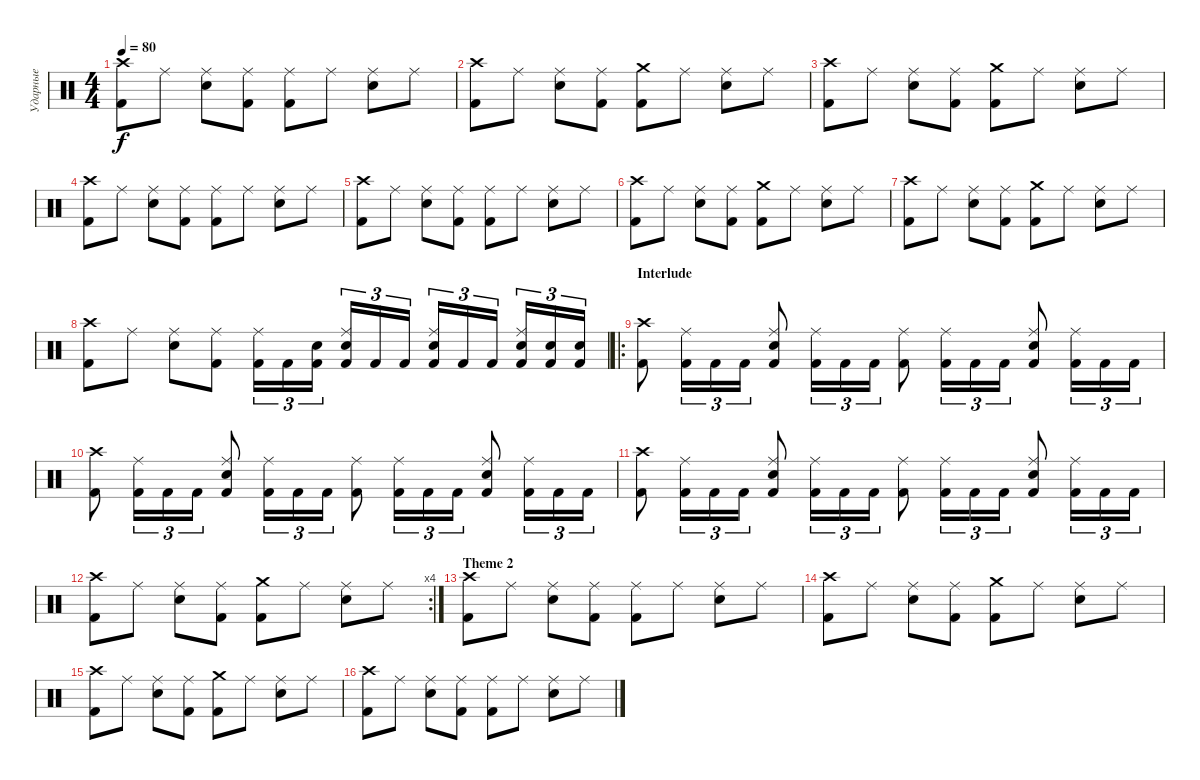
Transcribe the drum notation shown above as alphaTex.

\track ("Ударные" "Ударные") {instrument percussion}
\staff {score}
\articulation defaults
\ts (4 4)
\tempo 80
\clef neutral
\ks c
("Crash high (hit)" "Kick (hit) 2").8{dy f} "Ride (middle)".8 ("Ride (middle)" "Electric Snare (hit)").8 ("Ride (middle)" "Kick (hit) 2").8 ("Ride (middle)" "Kick (hit) 2").8 "Ride (middle)".8 ("Ride (middle)" "Electric Snare (hit)").8 "Ride (middle)".8 |
("Crash high (hit)" "Kick (hit) 2").8 "Ride (middle)".8 ("Ride (middle)" "Electric Snare (hit)").8 ("Ride (middle)" "Kick (hit) 2").8 ("Crash medium (hit)" "Kick (hit) 2").8 "Ride (middle)".8 ("Ride (middle)" "Electric Snare (hit)").8 "Ride (middle)".8 |
("Crash high (hit)" "Kick (hit) 2").8 "Ride (middle)".8 ("Ride (middle)" "Electric Snare (hit)").8 ("Ride (middle)" "Kick (hit) 2").8 ("Crash medium (hit)" "Kick (hit) 2").8 "Ride (middle)".8 ("Ride (middle)" "Electric Snare (hit)").8 "Ride (middle)".8 |
("Crash high (hit)" "Kick (hit) 2").8 "Ride (middle)".8 ("Ride (middle)" "Electric Snare (hit)").8 ("Ride (middle)" "Kick (hit) 2").8 ("Ride (middle)" "Kick (hit) 2").8 "Ride (middle)".8 ("Ride (middle)" "Electric Snare (hit)").8 "Ride (middle)".8 |
("Crash high (hit)" "Kick (hit) 2").8 "Ride (middle)".8 ("Ride (middle)" "Electric Snare (hit)").8 ("Ride (middle)" "Kick (hit) 2").8 ("Ride (middle)" "Kick (hit) 2").8 "Ride (middle)".8 ("Ride (middle)" "Electric Snare (hit)").8 "Ride (middle)".8 |
("Crash high (hit)" "Kick (hit) 2").8 "Ride (middle)".8 ("Ride (middle)" "Electric Snare (hit)").8 ("Ride (middle)" "Kick (hit) 2").8 ("Crash medium (hit)" "Kick (hit) 2").8 "Ride (middle)".8 ("Ride (middle)" "Electric Snare (hit)").8 "Ride (middle)".8 |
("Crash high (hit)" "Kick (hit) 2").8 "Ride (middle)".8 ("Ride (middle)" "Electric Snare (hit)").8 ("Ride (middle)" "Kick (hit) 2").8 ("Crash medium (hit)" "Kick (hit) 2").8 "Ride (middle)".8 ("Ride (middle)" "Electric Snare (hit)").8 "Ride (middle)".8 |
("Crash high (hit)" "Kick (hit) 2").8 "Ride (middle)".8 ("Ride (middle)" "Electric Snare (hit)").8 ("Ride (middle)" "Kick (hit) 2").8 ("Ride (middle)" "Kick (hit) 2").16{tu (3 2)} "Kick (hit) 2".16{tu (3 2)} ("Electric Snare (hit)" "Kick (hit) 2").16{tu (3 2)} ("Ride (middle)" "Electric Snare (hit)" "Kick (hit) 2").16{tu (3 2)} "Kick (hit) 2".16{tu (3 2)} "Kick (hit) 2".16{tu (3 2)} ("Ride (middle)" "Electric Snare (hit)" "Kick (hit) 2").16{tu (3 2)} "Kick (hit) 2".16{tu (3 2)} "Kick (hit) 2".16{tu (3 2)} ("Ride (middle)" "Electric Snare (hit)" "Kick (hit) 2").16{tu (3 2)} ("Electric Snare (hit)" "Kick (hit) 2").16{tu (3 2)} ("Electric Snare (hit)" "Kick (hit) 2").16{tu (3 2)} |
\ro
\section ("" "Interlude")
("Crash high (hit)" "Kick (hit) 2").8 ("Ride (middle)" "Kick (hit) 2").16{tu (3 2)} "Kick (hit) 2".16{tu (3 2)} "Kick (hit) 2".16{tu (3 2)} ("Ride (middle)" "Electric Snare (hit)" "Kick (hit) 2").8 ("Ride (middle)" "Kick (hit) 2").16{tu (3 2)} "Kick (hit) 2".16{tu (3 2)} "Kick (hit) 2".16{tu (3 2)} ("Ride (middle)" "Kick (hit) 2").8 ("Ride (middle)" "Kick (hit) 2").16{tu (3 2)} "Kick (hit) 2".16{tu (3 2)} "Kick (hit) 2".16{tu (3 2)} ("Ride (middle)" "Electric Snare (hit)" "Kick (hit) 2").8 ("Ride (middle)" "Kick (hit) 2").16{tu (3 2)} "Kick (hit) 2".16{tu (3 2)} "Kick (hit) 2".16{tu (3 2)} |
("Crash high (hit)" "Kick (hit) 2").8 ("Ride (middle)" "Kick (hit) 2").16{tu (3 2)} "Kick (hit) 2".16{tu (3 2)} "Kick (hit) 2".16{tu (3 2)} ("Ride (middle)" "Electric Snare (hit)" "Kick (hit) 2").8 ("Ride (middle)" "Kick (hit) 2").16{tu (3 2)} "Kick (hit) 2".16{tu (3 2)} "Kick (hit) 2".16{tu (3 2)} ("Ride (middle)" "Kick (hit) 2").8 ("Ride (middle)" "Kick (hit) 2").16{tu (3 2)} "Kick (hit) 2".16{tu (3 2)} "Kick (hit) 2".16{tu (3 2)} ("Ride (middle)" "Electric Snare (hit)" "Kick (hit) 2").8 ("Ride (middle)" "Kick (hit) 2").16{tu (3 2)} "Kick (hit) 2".16{tu (3 2)} "Kick (hit) 2".16{tu (3 2)} |
("Crash high (hit)" "Kick (hit) 2").8 ("Ride (middle)" "Kick (hit) 2").16{tu (3 2)} "Kick (hit) 2".16{tu (3 2)} "Kick (hit) 2".16{tu (3 2)} ("Ride (middle)" "Electric Snare (hit)" "Kick (hit) 2").8 ("Ride (middle)" "Kick (hit) 2").16{tu (3 2)} "Kick (hit) 2".16{tu (3 2)} "Kick (hit) 2".16{tu (3 2)} ("Ride (middle)" "Kick (hit) 2").8 ("Ride (middle)" "Kick (hit) 2").16{tu (3 2)} "Kick (hit) 2".16{tu (3 2)} "Kick (hit) 2".16{tu (3 2)} ("Ride (middle)" "Electric Snare (hit)" "Kick (hit) 2").8 ("Ride (middle)" "Kick (hit) 2").16{tu (3 2)} "Kick (hit) 2".16{tu (3 2)} "Kick (hit) 2".16{tu (3 2)} |
\rc 4
("Crash high (hit)" "Kick (hit) 2").8 "Ride (middle)".8 ("Ride (middle)" "Electric Snare (hit)").8 ("Ride (middle)" "Kick (hit) 2").8 ("Crash medium (hit)" "Kick (hit) 2").8 "Ride (middle)".8 ("Ride (middle)" "Electric Snare (hit)").8 "Ride (middle)".8 |
\section ("" "Theme 2")
("Crash high (hit)" "Kick (hit) 2").8 "Ride (middle)".8 ("Ride (middle)" "Electric Snare (hit)").8 ("Ride (middle)" "Kick (hit) 2").8 ("Ride (middle)" "Kick (hit) 2").8 "Ride (middle)".8 ("Ride (middle)" "Electric Snare (hit)").8 "Ride (middle)".8 |
("Crash high (hit)" "Kick (hit) 2").8 "Ride (middle)".8 ("Ride (middle)" "Electric Snare (hit)").8 ("Ride (middle)" "Kick (hit) 2").8 ("Crash medium (hit)" "Kick (hit) 2").8 "Ride (middle)".8 ("Ride (middle)" "Electric Snare (hit)").8 "Ride (middle)".8 |
("Crash high (hit)" "Kick (hit) 2").8 "Ride (middle)".8 ("Ride (middle)" "Electric Snare (hit)").8 ("Ride (middle)" "Kick (hit) 2").8 ("Crash medium (hit)" "Kick (hit) 2").8 "Ride (middle)".8 ("Ride (middle)" "Electric Snare (hit)").8 "Ride (middle)".8 |
("Crash high (hit)" "Kick (hit) 2").8 "Ride (middle)".8 ("Ride (middle)" "Electric Snare (hit)").8 ("Ride (middle)" "Kick (hit) 2").8 ("Ride (middle)" "Kick (hit) 2").8 "Ride (middle)".8 ("Ride (middle)" "Electric Snare (hit)").8 "Ride (middle)".8
